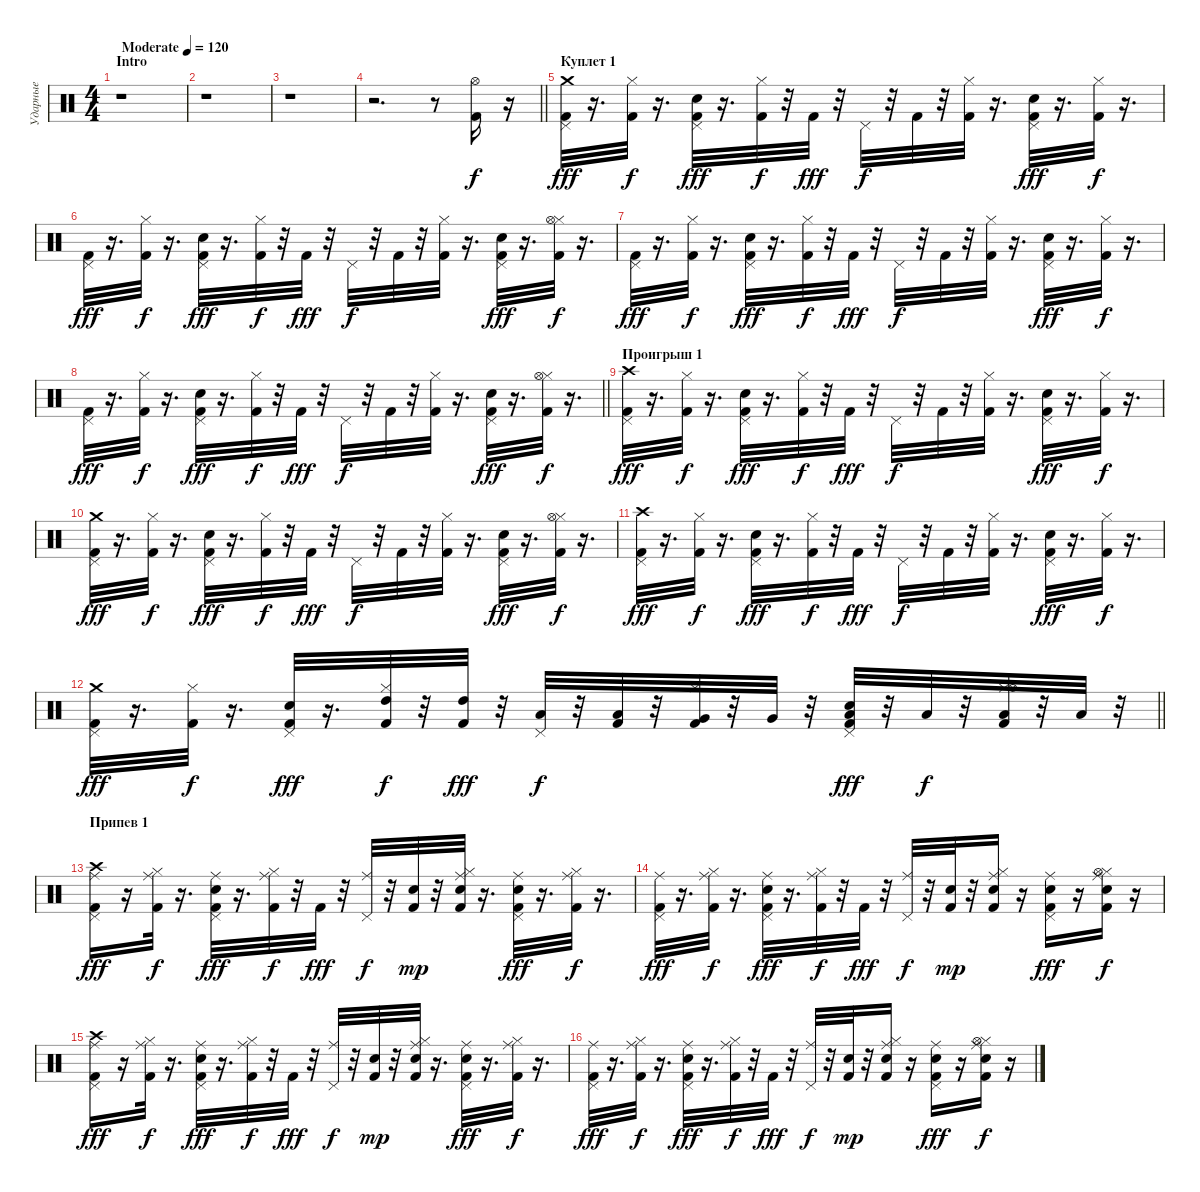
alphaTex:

\track ("Ударные" "Ударные") {instrument percussion}
\staff {score}
\articulation defaults
\ts (4 4)
\section ("" "Intro")
\tempo (120 "Moderate")
\clef neutral
\ks c
r.1{dy f} |
r.1 |
r.1 |
\barLineRight lightlight
r.2{d} r.8 ("Kick (hit) 2" "Hi-Hat (open)").16 r.16 |
\section ("" "Куплет 1")
("Kick (hit) 2" "Pedal Hi-Hat (hit)" "Crash medium (hit)").32{dy fff} r.16{d} ("Kick (hit) 2" "Hi-Hat (closed)").32{dy f} r.16{d} ("Kick (hit) 2" "Snare (hit) 2" "Pedal Hi-Hat (hit)").32{dy fff} r.16{d} ("Kick (hit) 2" "Hi-Hat (closed)").32{dy f} r.32 "Kick (hit) 2".32{dy fff} r.32 "Pedal Hi-Hat (hit)".32{dy f} r.32 "Kick (hit) 2".32 r.32 ("Kick (hit) 2" "Hi-Hat (closed)").32 r.16{d} ("Kick (hit) 2" "Snare (hit) 2" "Pedal Hi-Hat (hit)").32{dy fff} r.16{d} ("Kick (hit) 2" "Hi-Hat (closed)").32{dy f} r.16{d} |
("Kick (hit) 2" "Pedal Hi-Hat (hit)").32{dy fff} r.16{d} ("Kick (hit) 2" "Hi-Hat (closed)").32{dy f} r.16{d} ("Kick (hit) 2" "Snare (hit) 2" "Pedal Hi-Hat (hit)").32{dy fff} r.16{d} ("Kick (hit) 2" "Hi-Hat (closed)").32{dy f} r.32 "Kick (hit) 2".32{dy fff} r.32 "Pedal Hi-Hat (hit)".32{dy f} r.32 "Kick (hit) 2".32 r.32 ("Kick (hit) 2" "Hi-Hat (closed)").32 r.16{d} ("Kick (hit) 2" "Snare (hit) 2" "Pedal Hi-Hat (hit)").32{dy fff} r.16{d} ("Kick (hit) 2" "Hi-Hat (closed)" "Hi-Hat (open)").32{dy f} r.16{d} |
("Kick (hit) 2" "Pedal Hi-Hat (hit)").32{dy fff} r.16{d} ("Kick (hit) 2" "Hi-Hat (closed)").32{dy f} r.16{d} ("Kick (hit) 2" "Snare (hit) 2" "Pedal Hi-Hat (hit)").32{dy fff} r.16{d} ("Kick (hit) 2" "Hi-Hat (closed)").32{dy f} r.32 "Kick (hit) 2".32{dy fff} r.32 "Pedal Hi-Hat (hit)".32{dy f} r.32 "Kick (hit) 2".32 r.32 ("Kick (hit) 2" "Hi-Hat (closed)").32 r.16{d} ("Kick (hit) 2" "Snare (hit) 2" "Pedal Hi-Hat (hit)").32{dy fff} r.16{d} ("Kick (hit) 2" "Hi-Hat (closed)").32{dy f} r.16{d} |
\barLineRight lightlight
("Kick (hit) 2" "Pedal Hi-Hat (hit)").32{dy fff} r.16{d} ("Kick (hit) 2" "Hi-Hat (closed)").32{dy f} r.16{d} ("Kick (hit) 2" "Snare (hit) 2" "Pedal Hi-Hat (hit)").32{dy fff} r.16{d} ("Kick (hit) 2" "Hi-Hat (closed)").32{dy f} r.32 "Kick (hit) 2".32{dy fff} r.32 "Pedal Hi-Hat (hit)".32{dy f} r.32 "Kick (hit) 2".32 r.32 ("Kick (hit) 2" "Hi-Hat (closed)").32 r.16{d} ("Kick (hit) 2" "Snare (hit) 2" "Pedal Hi-Hat (hit)").32{dy fff} r.16{d} ("Kick (hit) 2" "Hi-Hat (closed)" "Hi-Hat (open)").32{dy f} r.16{d} |
\section ("" "Проигрыш 1")
("Kick (hit) 2" "Pedal Hi-Hat (hit)" "Crash high (hit)").32{dy fff} r.16{d} ("Kick (hit) 2" "Hi-Hat (closed)").32{dy f} r.16{d} ("Kick (hit) 2" "Snare (hit) 2" "Pedal Hi-Hat (hit)").32{dy fff} r.16{d} ("Kick (hit) 2" "Hi-Hat (closed)").32{dy f} r.32 "Kick (hit) 2".32{dy fff} r.32 "Pedal Hi-Hat (hit)".32{dy f} r.32 "Kick (hit) 2".32 r.32 ("Kick (hit) 2" "Hi-Hat (closed)").32 r.16{d} ("Kick (hit) 2" "Snare (hit) 2" "Pedal Hi-Hat (hit)").32{dy fff} r.16{d} ("Kick (hit) 2" "Hi-Hat (closed)").32{dy f} r.16{d} |
("Kick (hit) 2" "Pedal Hi-Hat (hit)" "Crash medium (hit)").32{dy fff} r.16{d} ("Kick (hit) 2" "Hi-Hat (closed)").32{dy f} r.16{d} ("Kick (hit) 2" "Snare (hit) 2" "Pedal Hi-Hat (hit)").32{dy fff} r.16{d} ("Kick (hit) 2" "Hi-Hat (closed)").32{dy f} r.32 "Kick (hit) 2".32{dy fff} r.32 "Pedal Hi-Hat (hit)".32{dy f} r.32 "Kick (hit) 2".32 r.32 ("Kick (hit) 2" "Hi-Hat (closed)").32 r.16{d} ("Kick (hit) 2" "Snare (hit) 2" "Pedal Hi-Hat (hit)").32{dy fff} r.16{d} ("Kick (hit) 2" "Hi-Hat (closed)" "Hi-Hat (open)").32{dy f} r.16{d} |
("Kick (hit) 2" "Pedal Hi-Hat (hit)" "Crash high (hit)").32{dy fff} r.16{d} ("Kick (hit) 2" "Hi-Hat (closed)").32{dy f} r.16{d} ("Kick (hit) 2" "Snare (hit) 2" "Pedal Hi-Hat (hit)").32{dy fff} r.16{d} ("Kick (hit) 2" "Hi-Hat (closed)").32{dy f} r.32 "Kick (hit) 2".32{dy fff} r.32 "Pedal Hi-Hat (hit)".32{dy f} r.32 "Kick (hit) 2".32 r.32 ("Kick (hit) 2" "Hi-Hat (closed)").32 r.16{d} ("Kick (hit) 2" "Snare (hit) 2" "Pedal Hi-Hat (hit)").32{dy fff} r.16{d} ("Kick (hit) 2" "Hi-Hat (closed)").32{dy f} r.16{d} |
\barLineRight lightlight
("Kick (hit) 2" "Pedal Hi-Hat (hit)" "Crash medium (hit)").32{dy fff} r.16{d} ("Kick (hit) 2" "Hi-Hat (closed)").32{dy f} r.16{d} ("Kick (hit) 2" "Snare (hit) 2" "Pedal Hi-Hat (hit)").32{dy fff} r.16{d} ("Kick (hit) 2" "Hi-Hat (closed)" "High Tom (hit)").32{dy f} r.32 ("Kick (hit) 2" "High Tom (hit)").32{dy fff} r.32 ("Pedal Hi-Hat (hit)" "Low Tom (hit)").32{dy f} r.32 ("Kick (hit) 2" "Low Tom (hit)").32 r.32 ("Kick (hit) 2" "Hi-Hat (closed)" "Very Low Tom (hit)").32 r.32 "Very Low Tom (hit)".32 r.32 ("Kick (hit) 2" "Snare (hit) 2" "Low Floor Tom (hit)" "Pedal Hi-Hat (hit)").32{dy fff} r.32 "Low Floor Tom (hit)".32{dy f} r.32 ("Kick (hit) 2" "Low Floor Tom (hit)" "Hi-Hat (closed)" "Hi-Hat (open)").32 r.32 "Low Floor Tom (hit)".32 r.32 |
\section ("" "Припев 1")
("Kick (hit) 2" "Pedal Hi-Hat (hit)" "Crash high (hit)" "Ride (middle)").16{dy fff} r.16 ("Kick (hit) 2" "Hi-Hat (closed)" "Ride (middle)").32{dy f} r.16{d} ("Kick (hit) 2" "Snare (hit) 2" "Pedal Hi-Hat (hit)" "Ride (middle)").32{dy fff} r.16{d} ("Kick (hit) 2" "Hi-Hat (closed)" "Ride (middle)").32{dy f} r.32 "Kick (hit) 2".32{dy fff} r.32 ("Pedal Hi-Hat (hit)" "Ride (middle)").32{dy f} r.32 ("Kick (hit) 2" "Snare (hit) 2").32{dy mp} r.32 ("Kick (hit) 2" "Snare (hit) 2" "Hi-Hat (closed)" "Ride (middle)").32 r.16{d} ("Kick (hit) 2" "Snare (hit) 2" "Pedal Hi-Hat (hit)" "Ride (middle)").32{dy fff} r.16{d} ("Kick (hit) 2" "Hi-Hat (closed)" "Ride (middle)").32{dy f} r.16{d} |
("Kick (hit) 2" "Pedal Hi-Hat (hit)" "Ride (middle)").32{dy fff} r.16{d} ("Kick (hit) 2" "Hi-Hat (closed)" "Ride (middle)").32{dy f} r.16{d} ("Kick (hit) 2" "Snare (hit) 2" "Pedal Hi-Hat (hit)" "Ride (middle)").32{dy fff} r.16{d} ("Kick (hit) 2" "Hi-Hat (closed)" "Ride (middle)").32{dy f} r.32 "Kick (hit) 2".32{dy fff} r.32 ("Pedal Hi-Hat (hit)" "Ride (middle)").32{dy f} r.32 ("Kick (hit) 2" "Snare (hit) 2").32{dy mp} r.32 ("Kick (hit) 2" "Snare (hit) 2" "Hi-Hat (closed)" "Ride (middle)").16 r.16 ("Kick (hit) 2" "Snare (hit) 2" "Pedal Hi-Hat (hit)" "Ride (middle)").16{dy fff} r.16 ("Kick (hit) 2" "Snare (hit) 2" "Hi-Hat (closed)" "Hi-Hat (open)" "Ride (middle)").16{dy f} r.16 |
("Kick (hit) 2" "Pedal Hi-Hat (hit)" "Crash high (hit)" "Ride (middle)").16{dy fff} r.16 ("Kick (hit) 2" "Hi-Hat (closed)" "Ride (middle)").32{dy f} r.16{d} ("Kick (hit) 2" "Snare (hit) 2" "Pedal Hi-Hat (hit)" "Ride (middle)").32{dy fff} r.16{d} ("Kick (hit) 2" "Hi-Hat (closed)" "Ride (middle)").32{dy f} r.32 "Kick (hit) 2".32{dy fff} r.32 ("Pedal Hi-Hat (hit)" "Ride (middle)").32{dy f} r.32 ("Kick (hit) 2" "Snare (hit) 2").32{dy mp} r.32 ("Kick (hit) 2" "Snare (hit) 2" "Hi-Hat (closed)" "Ride (middle)").32 r.16{d} ("Kick (hit) 2" "Snare (hit) 2" "Pedal Hi-Hat (hit)" "Ride (middle)").32{dy fff} r.16{d} ("Kick (hit) 2" "Hi-Hat (closed)" "Ride (middle)").32{dy f} r.16{d} |
("Kick (hit) 2" "Pedal Hi-Hat (hit)" "Ride (middle)").32{dy fff} r.16{d} ("Kick (hit) 2" "Hi-Hat (closed)" "Ride (middle)").32{dy f} r.16{d} ("Kick (hit) 2" "Snare (hit) 2" "Pedal Hi-Hat (hit)" "Ride (middle)").32{dy fff} r.16{d} ("Kick (hit) 2" "Hi-Hat (closed)" "Ride (middle)").32{dy f} r.32 "Kick (hit) 2".32{dy fff} r.32 ("Pedal Hi-Hat (hit)" "Ride (middle)").32{dy f} r.32 ("Kick (hit) 2" "Snare (hit) 2").32{dy mp} r.32 ("Kick (hit) 2" "Snare (hit) 2" "Hi-Hat (closed)" "Ride (middle)").16 r.16 ("Kick (hit) 2" "Snare (hit) 2" "Pedal Hi-Hat (hit)" "Ride (middle)").16{dy fff} r.16 ("Kick (hit) 2" "Snare (hit) 2" "Hi-Hat (closed)" "Hi-Hat (open)" "Ride (middle)").16{dy f} r.16
